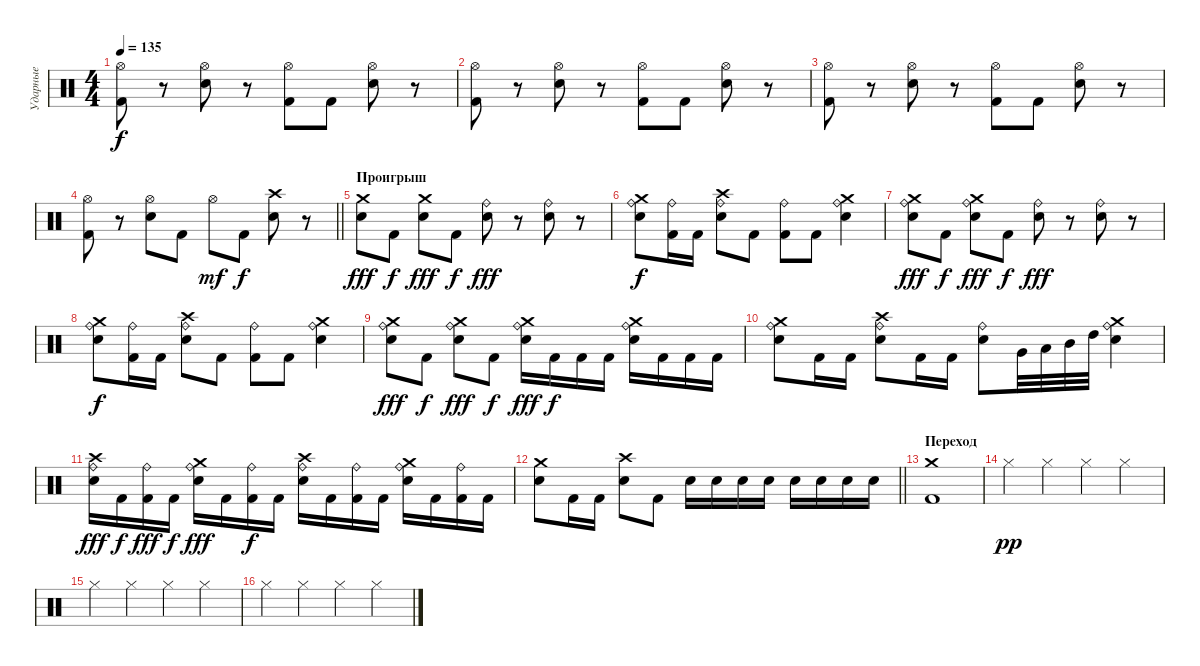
\track ("Ударные" "Ударные") {instrument percussion}
\staff {score}
\articulation defaults
\ts (4 4)
\tempo 135
\clef neutral
\ks c
("Hi-Hat (open)" "Kick (hit) 2").8{dy f} r.8 ("Hi-Hat (open)" "Electric Snare (hit)").8 r.8 ("Hi-Hat (open)" "Kick (hit) 2").8 "Kick (hit) 2".8 ("Hi-Hat (open)" "Electric Snare (hit)").8 r.8 |
("Hi-Hat (open)" "Kick (hit) 2").8 r.8 ("Hi-Hat (open)" "Electric Snare (hit)").8 r.8 ("Hi-Hat (open)" "Kick (hit) 2").8 "Kick (hit) 2".8 ("Hi-Hat (open)" "Electric Snare (hit)").8 r.8 |
("Hi-Hat (open)" "Kick (hit) 2").8 r.8 ("Hi-Hat (open)" "Electric Snare (hit)").8 r.8 ("Hi-Hat (open)" "Kick (hit) 2").8 "Kick (hit) 2".8 ("Hi-Hat (open)" "Electric Snare (hit)").8 r.8 |
\barLineRight lightlight
("Hi-Hat (open)" "Kick (hit) 2").8 r.8 ("Hi-Hat (open)" "Electric Snare (hit)").8 "Kick (hit) 2".8 "Hi-Hat (open)".8{dy mf} "Kick (hit) 2".8{dy f} ("Crash high (hit)" "Electric Snare (hit)").8 r.8 |
\section ("" "Проигрыш")
("Crash medium (hit)" "Electric Snare (hit)").8{dy fff} "Kick (hit) 2".8{dy f} ("Crash medium (hit)" "Electric Snare (hit)").8{dy fff} "Kick (hit) 2".8{dy f} ("Ride (bell)" "Electric Snare (hit)").8{dy fff} r.8 ("Ride (bell)" "Electric Snare (hit)").8 r.8 |
("Ride (bell)" "Crash medium (hit)" "Electric Snare (hit)").8{dy f} ("Ride (bell)" "Kick (hit) 2").16 "Kick (hit) 2".16 ("Ride (bell)" "Crash high (hit)" "Electric Snare (hit)").8 "Kick (hit) 2".8 ("Ride (bell)" "Kick (hit) 2").8 "Kick (hit) 2".8 ("Ride (bell)" "Crash medium (hit)" "Electric Snare (hit)").4 |
("Ride (bell)" "Crash medium (hit)" "Electric Snare (hit)").8{dy fff} "Kick (hit) 2".8{dy f} ("Ride (bell)" "Crash medium (hit)" "Electric Snare (hit)").8{dy fff} "Kick (hit) 2".8{dy f} ("Ride (bell)" "Electric Snare (hit)").8{dy fff} r.8 ("Ride (bell)" "Electric Snare (hit)").8 r.8 |
("Ride (bell)" "Crash medium (hit)" "Electric Snare (hit)").8{dy f} ("Ride (bell)" "Kick (hit) 2").16 "Kick (hit) 2".16 ("Ride (bell)" "Crash high (hit)" "Electric Snare (hit)").8 "Kick (hit) 2".8 ("Ride (bell)" "Kick (hit) 2").8 "Kick (hit) 2".8 ("Ride (bell)" "Crash medium (hit)" "Electric Snare (hit)").4 |
("Ride (bell)" "Crash medium (hit)" "Electric Snare (hit)").8{dy fff} "Kick (hit) 2".8{dy f} ("Ride (bell)" "Crash medium (hit)" "Electric Snare (hit)").8{dy fff} "Kick (hit) 2".8{dy f} ("Ride (bell)" "Crash medium (hit)" "Electric Snare (hit)").16{dy fff} "Kick (hit) 2".16{dy f} "Kick (hit) 2".16 "Kick (hit) 2".16 ("Ride (bell)" "Crash medium (hit)" "Electric Snare (hit)").16 "Kick (hit) 2".16 "Kick (hit) 2".16 "Kick (hit) 2".16 |
("Ride (bell)" "Crash medium (hit)" "Electric Snare (hit)").8 "Kick (hit) 2".16 "Kick (hit) 2".16 ("Ride (bell)" "Crash high (hit)" "Electric Snare (hit)").8 "Kick (hit) 2".16 "Kick (hit) 2".16 ("Ride (bell)" "Electric Snare (hit)").8 "Very Low Tom (hit)".32 "Low Tom (hit)".32 "Mid Tom (hit)".32 "High Tom (hit)".32 ("Ride (bell)" "Crash medium (hit)" "Electric Snare (hit)").4 |
("Ride (bell)" "Crash high (hit)" "Electric Snare (hit)").16{dy fff} "Kick (hit) 2".16{dy f} ("Ride (bell)" "Kick (hit) 2").16{dy fff} "Kick (hit) 2".16{dy f} ("Ride (bell)" "Crash medium (hit)" "Electric Snare (hit)").16{dy fff} "Kick (hit) 2".16 ("Ride (bell)" "Kick (hit) 2").16{dy f} "Kick (hit) 2".16 ("Ride (bell)" "Crash high (hit)" "Electric Snare (hit)").16 "Kick (hit) 2".16 ("Ride (bell)" "Kick (hit) 2").16 "Kick (hit) 2".16 ("Ride (bell)" "Crash medium (hit)" "Electric Snare (hit)").16 "Kick (hit) 2".16 ("Ride (bell)" "Kick (hit) 2").16 "Kick (hit) 2".16 |
\barLineRight lightlight
("Crash medium (hit)" "Electric Snare (hit)").8 "Kick (hit) 2".16 "Kick (hit) 2".16 ("Crash high (hit)" "Electric Snare (hit)").8 "Kick (hit) 2".8 "Electric Snare (hit)".16 "Electric Snare (hit)".16 "Electric Snare (hit)".16 "Electric Snare (hit)".16 "Electric Snare (hit)".16 "Electric Snare (hit)".16 "Electric Snare (hit)".16 "Electric Snare (hit)".16 |
\section ("" "Переход")
("Crash medium (hit)" "Kick (hit) 2").1 |
"Hi-Hat (closed)".4{dy pp} "Hi-Hat (closed)".4 "Hi-Hat (closed)".4 "Hi-Hat (closed)".4 |
"Hi-Hat (closed)".4 "Hi-Hat (closed)".4 "Hi-Hat (closed)".4 "Hi-Hat (closed)".4 |
"Hi-Hat (closed)".4 "Hi-Hat (closed)".4 "Hi-Hat (closed)".4 "Hi-Hat (closed)".4
